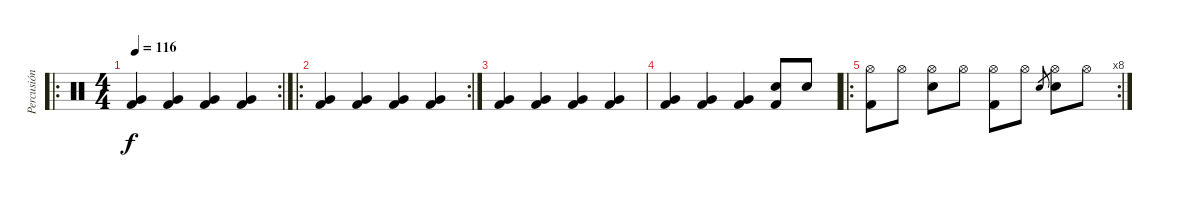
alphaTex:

\track ("Percusión" "Percusión") {instrument percussion}
\staff {score}
\articulation defaults
\ro
\rc 2
\ts (4 4)
\tempo 116
\clef neutral
\ks c
("Very Low Tom (hit)" "Kick (hit) 2").4{dy f} ("Very Low Tom (hit)" "Kick (hit) 2").4 ("Very Low Tom (hit)" "Kick (hit) 2").4 ("Very Low Tom (hit)" "Kick (hit) 2").4 |
\ro
\rc 2
("Very Low Tom (hit)" "Kick (hit) 2").4 ("Very Low Tom (hit)" "Kick (hit) 2").4 ("Very Low Tom (hit)" "Kick (hit) 2").4 ("Very Low Tom (hit)" "Kick (hit) 2").4 |
("Very Low Tom (hit)" "Kick (hit) 2").4 ("Very Low Tom (hit)" "Kick (hit) 2").4 ("Very Low Tom (hit)" "Kick (hit) 2").4 ("Very Low Tom (hit)" "Kick (hit) 2").4 |
("Very Low Tom (hit)" "Kick (hit) 2").4 ("Very Low Tom (hit)" "Kick (hit) 2").4 ("Very Low Tom (hit)" "Kick (hit) 2").4 ("Electric Snare (hit)" "Kick (hit) 2").8 "Electric Snare (hit)".8 |
\ro
\rc 8
("Hi-Hat (open)" "Kick (hit) 2").8 "Hi-Hat (open)".8 ("Hi-Hat (open)" "Electric Snare (hit)").8 "Hi-Hat (open)".8 ("Hi-Hat (open)" "Kick (hit) 2").8 "Hi-Hat (open)".8 "Electric Snare (hit)".8{gr} ("Hi-Hat (open)" "Electric Snare (hit)").8 "Hi-Hat (open)".8
